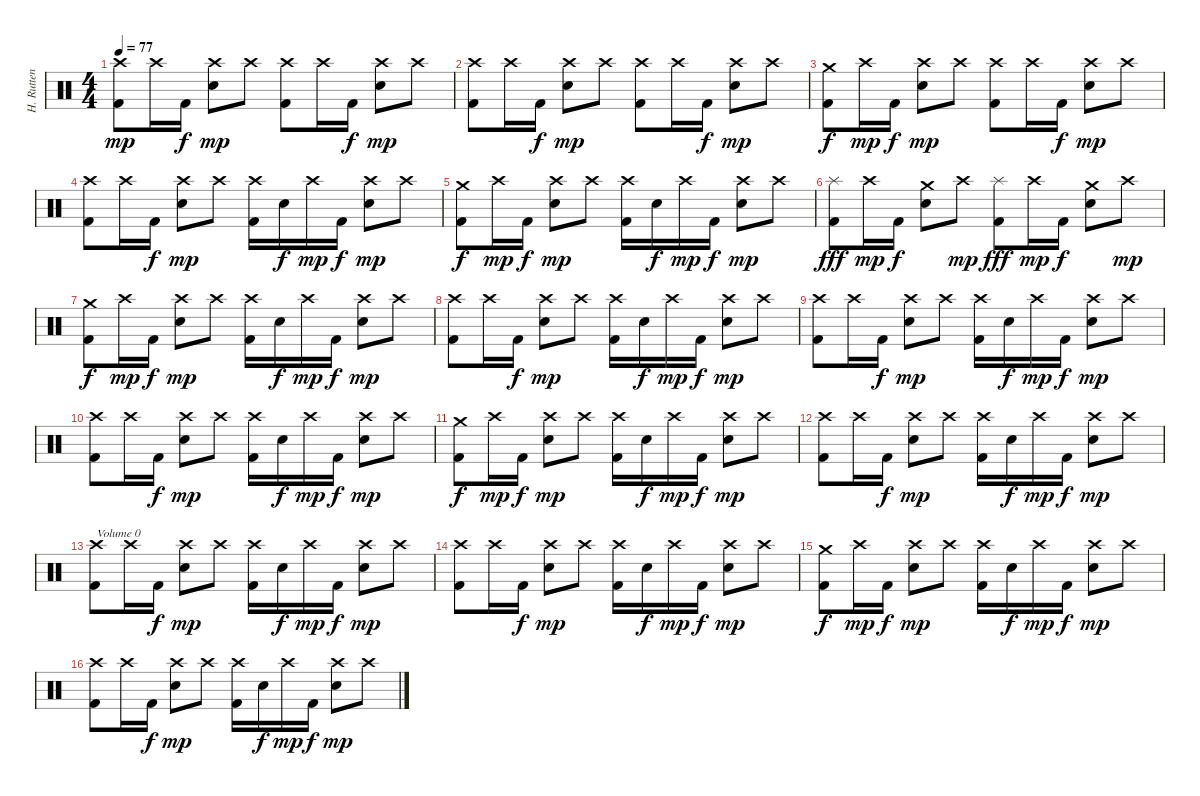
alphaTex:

\track ("H. Rutten" "H. Rutten") {instrument percussion}
\staff {score}
\articulation defaults
\ts (4 4)
\tempo 77
\clef neutral
\ks c
("Kick (hit) 2" "Crash high (hit)").8{dy mp volume 11} "Crash high (hit)".16 "Kick (hit) 2".16{dy f} ("Electric Snare (hit)" "Crash high (hit)").8{dy mp} "Crash high (hit)".8 ("Kick (hit) 2" "Crash high (hit)").8 "Crash high (hit)".16 "Kick (hit) 2".16{dy f} ("Electric Snare (hit)" "Crash high (hit)").8{dy mp} "Crash high (hit)".8 |
("Kick (hit) 2" "Crash high (hit)").8{volume 11} "Crash high (hit)".16 "Kick (hit) 2".16{dy f} ("Electric Snare (hit)" "Crash high (hit)").8{dy mp} "Crash high (hit)".8 ("Kick (hit) 2" "Crash high (hit)").8 "Crash high (hit)".16 "Kick (hit) 2".16{dy f} ("Electric Snare (hit)" "Crash high (hit)").8{dy mp} "Crash high (hit)".8 |
("Kick (hit) 2" "Crash medium (hit)").8{dy f volume 9} "Crash high (hit)".16{dy mp} "Kick (hit) 2".16{dy f} ("Electric Snare (hit)" "Crash high (hit)").8{dy mp} "Crash high (hit)".8 ("Kick (hit) 2" "Crash high (hit)").8 "Crash high (hit)".16 "Kick (hit) 2".16{dy f} ("Electric Snare (hit)" "Crash high (hit)").8{dy mp} "Crash high (hit)".8 |
("Kick (hit) 2" "Crash high (hit)").8{volume 9} "Crash high (hit)".16 "Kick (hit) 2".16{dy f} ("Electric Snare (hit)" "Crash high (hit)").8{dy mp} "Crash high (hit)".8 ("Kick (hit) 2" "Crash high (hit)").16 "Electric Snare (hit)".16{dy f} "Crash high (hit)".16{dy mp} "Kick (hit) 2".16{dy f} ("Electric Snare (hit)" "Crash high (hit)").8{dy mp} "Crash high (hit)".8 |
("Kick (hit) 2" "Crash medium (hit)").8{dy f volume 8} "Crash high (hit)".16{dy mp} "Kick (hit) 2".16{dy f} ("Electric Snare (hit)" "Crash high (hit)").8{dy mp} "Crash high (hit)".8 ("Kick (hit) 2" "Crash high (hit)").16 "Electric Snare (hit)".16{dy f} "Crash high (hit)".16{dy mp} "Kick (hit) 2".16{dy f} ("Electric Snare (hit)" "Crash high (hit)").8{dy mp} "Crash high (hit)".8 |
("Kick (hit) 2" "Splash (hit)").8{dy fff volume 8} "Crash high (hit)".16{dy mp} "Kick (hit) 2".16{dy f} ("Electric Snare (hit)" "Crash medium (hit)").8 "Crash high (hit)".8{dy mp} ("Kick (hit) 2" "Splash (hit)").8{dy fff} "Crash high (hit)".16{dy mp} "Kick (hit) 2".16{dy f} ("Electric Snare (hit)" "Crash medium (hit)").8 "Crash high (hit)".8{dy mp} |
("Kick (hit) 2" "Crash medium (hit)").8{dy f volume 7} "Crash high (hit)".16{dy mp} "Kick (hit) 2".16{dy f} ("Electric Snare (hit)" "Crash high (hit)").8{dy mp} "Crash high (hit)".8 ("Kick (hit) 2" "Crash high (hit)").16 "Electric Snare (hit)".16{dy f} "Crash high (hit)".16{dy mp} "Kick (hit) 2".16{dy f} ("Electric Snare (hit)" "Crash high (hit)").8{dy mp} "Crash high (hit)".8 |
("Kick (hit) 2" "Crash high (hit)").8{volume 7} "Crash high (hit)".16 "Kick (hit) 2".16{dy f} ("Electric Snare (hit)" "Crash high (hit)").8{dy mp} "Crash high (hit)".8 ("Kick (hit) 2" "Crash high (hit)").16 "Electric Snare (hit)".16{dy f} "Crash high (hit)".16{dy mp} "Kick (hit) 2".16{dy f} ("Electric Snare (hit)" "Crash high (hit)").8{dy mp} "Crash high (hit)".8 |
("Kick (hit) 2" "Crash high (hit)").8{volume 6} "Crash high (hit)".16 "Kick (hit) 2".16{dy f} ("Electric Snare (hit)" "Crash high (hit)").8{dy mp} "Crash high (hit)".8 ("Kick (hit) 2" "Crash high (hit)").16 "Electric Snare (hit)".16{dy f} "Crash high (hit)".16{dy mp} "Kick (hit) 2".16{dy f} ("Electric Snare (hit)" "Crash high (hit)").8{dy mp} "Crash high (hit)".8 |
("Kick (hit) 2" "Crash high (hit)").8{volume 6} "Crash high (hit)".16 "Kick (hit) 2".16{dy f} ("Electric Snare (hit)" "Crash high (hit)").8{dy mp} "Crash high (hit)".8 ("Kick (hit) 2" "Crash high (hit)").16 "Electric Snare (hit)".16{dy f} "Crash high (hit)".16{dy mp} "Kick (hit) 2".16{dy f} ("Electric Snare (hit)" "Crash high (hit)").8{dy mp} "Crash high (hit)".8 |
("Kick (hit) 2" "Crash medium (hit)").8{dy f volume 4} "Crash high (hit)".16{dy mp} "Kick (hit) 2".16{dy f} ("Electric Snare (hit)" "Crash high (hit)").8{dy mp} "Crash high (hit)".8 ("Kick (hit) 2" "Crash high (hit)").16 "Electric Snare (hit)".16{dy f} "Crash high (hit)".16{dy mp} "Kick (hit) 2".16{dy f} ("Electric Snare (hit)" "Crash high (hit)").8{dy mp} "Crash high (hit)".8 |
("Kick (hit) 2" "Crash high (hit)").8{volume 0} "Crash high (hit)".16 "Kick (hit) 2".16{dy f} ("Electric Snare (hit)" "Crash high (hit)").8{dy mp} "Crash high (hit)".8 ("Kick (hit) 2" "Crash high (hit)").16 "Electric Snare (hit)".16{dy f} "Crash high (hit)".16{dy mp} "Kick (hit) 2".16{dy f} ("Electric Snare (hit)" "Crash high (hit)").8{dy mp} "Crash high (hit)".8 |
("Kick (hit) 2" "Crash high (hit)").8{txt "Volume 0" volume 0} "Crash high (hit)".16 "Kick (hit) 2".16{dy f} ("Electric Snare (hit)" "Crash high (hit)").8{dy mp} "Crash high (hit)".8 ("Kick (hit) 2" "Crash high (hit)").16 "Electric Snare (hit)".16{dy f} "Crash high (hit)".16{dy mp} "Kick (hit) 2".16{dy f} ("Electric Snare (hit)" "Crash high (hit)").8{dy mp} "Crash high (hit)".8 |
("Kick (hit) 2" "Crash high (hit)").8{volume 0} "Crash high (hit)".16 "Kick (hit) 2".16{dy f} ("Electric Snare (hit)" "Crash high (hit)").8{dy mp} "Crash high (hit)".8 ("Kick (hit) 2" "Crash high (hit)").16 "Electric Snare (hit)".16{dy f} "Crash high (hit)".16{dy mp} "Kick (hit) 2".16{dy f} ("Electric Snare (hit)" "Crash high (hit)").8{dy mp} "Crash high (hit)".8 |
("Kick (hit) 2" "Crash medium (hit)").8{dy f volume 0} "Crash high (hit)".16{dy mp} "Kick (hit) 2".16{dy f} ("Electric Snare (hit)" "Crash high (hit)").8{dy mp} "Crash high (hit)".8 ("Kick (hit) 2" "Crash high (hit)").16 "Electric Snare (hit)".16{dy f} "Crash high (hit)".16{dy mp} "Kick (hit) 2".16{dy f} ("Electric Snare (hit)" "Crash high (hit)").8{dy mp} "Crash high (hit)".8 |
("Kick (hit) 2" "Crash high (hit)").8{volume 0} "Crash high (hit)".16 "Kick (hit) 2".16{dy f} ("Electric Snare (hit)" "Crash high (hit)").8{dy mp} "Crash high (hit)".8 ("Kick (hit) 2" "Crash high (hit)").16 "Electric Snare (hit)".16{dy f} "Crash high (hit)".16{dy mp} "Kick (hit) 2".16{dy f} ("Electric Snare (hit)" "Crash high (hit)").8{dy mp} "Crash high (hit)".8
